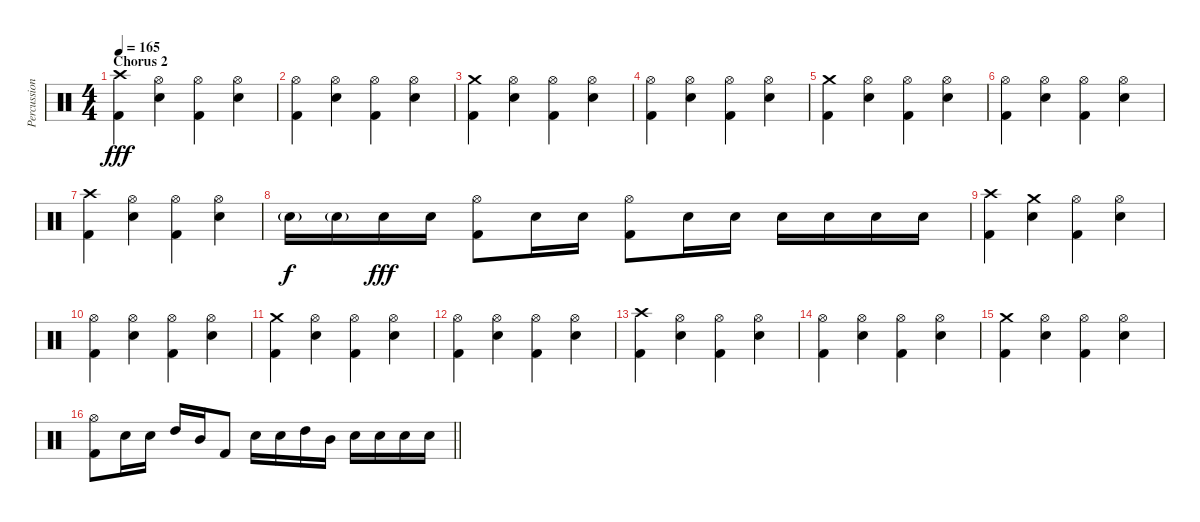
\track ("Percussion" "Percussion") {instrument percussion}
\staff {score}
\articulation defaults
\ts (4 4)
\section ("" "Chorus 2")
\tempo 165
\clef neutral
\ks c
("Crash high (hit)" "Kick (hit) 2").4{dy fff} ("Hi-Hat (open)" "Electric Snare (hit)").4 ("Hi-Hat (open)" "Kick (hit) 2").4 ("Hi-Hat (open)" "Electric Snare (hit)").4 |
("Hi-Hat (open)" "Kick (hit) 2").4 ("Hi-Hat (open)" "Electric Snare (hit)").4 ("Hi-Hat (open)" "Kick (hit) 2").4 ("Hi-Hat (open)" "Electric Snare (hit)").4 |
("Crash medium (hit)" "Kick (hit) 2").4 ("Hi-Hat (open)" "Electric Snare (hit)").4 ("Hi-Hat (open)" "Kick (hit) 2").4 ("Hi-Hat (open)" "Electric Snare (hit)").4 |
("Hi-Hat (open)" "Kick (hit) 2").4 ("Hi-Hat (open)" "Electric Snare (hit)").4 ("Hi-Hat (open)" "Kick (hit) 2").4 ("Hi-Hat (open)" "Electric Snare (hit)").4 |
("Crash medium (hit)" "Kick (hit) 2").4 ("Hi-Hat (open)" "Electric Snare (hit)").4 ("Hi-Hat (open)" "Kick (hit) 2").4 ("Hi-Hat (open)" "Electric Snare (hit)").4 |
("Hi-Hat (open)" "Kick (hit) 2").4 ("Hi-Hat (open)" "Electric Snare (hit)").4 ("Hi-Hat (open)" "Kick (hit) 2").4 ("Hi-Hat (open)" "Electric Snare (hit)").4 |
("Crash high (hit)" "Kick (hit) 2").4 ("Hi-Hat (open)" "Electric Snare (hit)").4 ("Hi-Hat (open)" "Kick (hit) 2").4 ("Hi-Hat (open)" "Electric Snare (hit)").4 |
"Electric Snare (hit)"{g}.16{dy f} "Electric Snare (hit)"{g}.16 "Electric Snare (hit)".16{dy fff} "Electric Snare (hit)".16 ("Hi-Hat (open)" "Kick (hit) 2").8 "Electric Snare (hit)".16 "Electric Snare (hit)".16 ("Hi-Hat (open)" "Kick (hit) 2").8 "Electric Snare (hit)".16 "Electric Snare (hit)".16 "Electric Snare (hit)".16 "Electric Snare (hit)".16 "Electric Snare (hit)".16 "Electric Snare (hit)".16 |
("Crash high (hit)" "Kick (hit) 2").4 ("Crash medium (hit)" "Electric Snare (hit)").4 ("Hi-Hat (open)" "Kick (hit) 2").4 ("Hi-Hat (open)" "Electric Snare (hit)").4 |
("Hi-Hat (open)" "Kick (hit) 2").4 ("Hi-Hat (open)" "Electric Snare (hit)").4 ("Hi-Hat (open)" "Kick (hit) 2").4 ("Hi-Hat (open)" "Electric Snare (hit)").4 |
("Crash medium (hit)" "Kick (hit) 2").4 ("Hi-Hat (open)" "Electric Snare (hit)").4 ("Hi-Hat (open)" "Kick (hit) 2").4 ("Hi-Hat (open)" "Electric Snare (hit)").4 |
("Hi-Hat (open)" "Kick (hit) 2").4 ("Hi-Hat (open)" "Electric Snare (hit)").4 ("Hi-Hat (open)" "Kick (hit) 2").4 ("Hi-Hat (open)" "Electric Snare (hit)").4 |
("Crash high (hit)" "Kick (hit) 2").4 ("Hi-Hat (open)" "Electric Snare (hit)").4 ("Hi-Hat (open)" "Kick (hit) 2").4 ("Hi-Hat (open)" "Electric Snare (hit)").4 |
("Hi-Hat (open)" "Kick (hit) 2").4 ("Hi-Hat (open)" "Electric Snare (hit)").4 ("Hi-Hat (open)" "Kick (hit) 2").4 ("Hi-Hat (open)" "Electric Snare (hit)").4 |
("Crash medium (hit)" "Kick (hit) 2").4 ("Hi-Hat (open)" "Electric Snare (hit)").4 ("Hi-Hat (open)" "Kick (hit) 2").4 ("Hi-Hat (open)" "Electric Snare (hit)").4 |
\barLineRight lightlight
("Hi-Hat (open)" "Kick (hit) 2").8 "Electric Snare (hit)".16 "Electric Snare (hit)".16 "High Tom (hit)".16 "Mid Tom (hit)".16 "Kick (hit) 2".8 "Electric Snare (hit)".16 "Electric Snare (hit)".16 "High Tom (hit)".16 "Mid Tom (hit)".16 "Electric Snare (hit)".16 "Electric Snare (hit)".16 "Electric Snare (hit)".16 "Electric Snare (hit)".16
